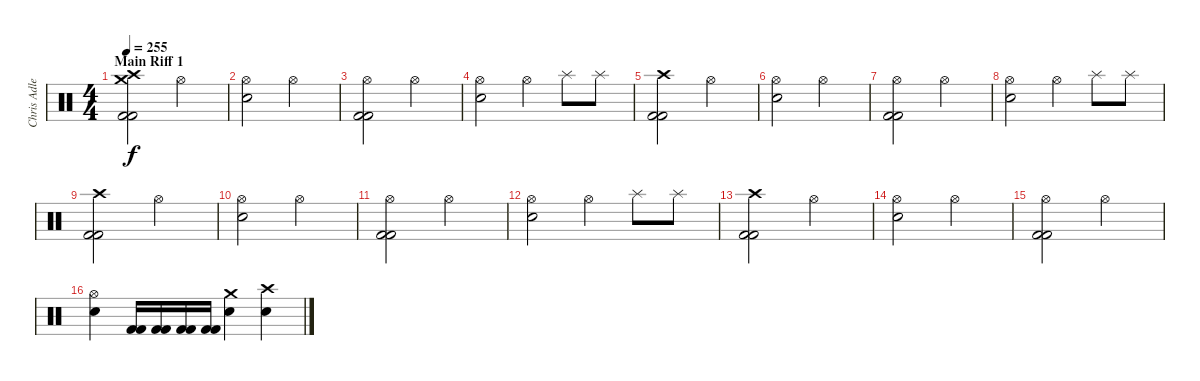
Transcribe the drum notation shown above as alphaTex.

\track ("Chris Adler" "Chris Adle") {instrument percussion}
\staff {score}
\articulation defaults
\ts (4 4)
\section ("" "Main Riff 1")
\tempo 255
\clef neutral
\ks c
("Crash medium (hit)" "Crash high (hit)" "Kick (hit) 2" "Kick (hit) 2").2{dy f} "Hi-Hat (open)".2 |
("Hi-Hat (open)" "Electric Snare (hit)").2 "Hi-Hat (open)".2 |
("Hi-Hat (open)" "Kick (hit) 2" "Kick (hit) 2").2 "Hi-Hat (open)".2 |
("Hi-Hat (open)" "Electric Snare (hit)").2 "Hi-Hat (open)".4 "Splash (hit)".8 "Splash (hit)".8 |
("Crash high (hit)" "Kick (hit) 2" "Kick (hit) 2").2 "Hi-Hat (open)".2 |
("Hi-Hat (open)" "Electric Snare (hit)").2 "Hi-Hat (open)".2 |
("Hi-Hat (open)" "Kick (hit) 2" "Kick (hit) 2").2 "Hi-Hat (open)".2 |
("Hi-Hat (open)" "Electric Snare (hit)").2 "Hi-Hat (open)".4 "Splash (hit)".8 "Splash (hit)".8 |
("Crash high (hit)" "Kick (hit) 2" "Kick (hit) 2").2 "Hi-Hat (open)".2 |
("Hi-Hat (open)" "Electric Snare (hit)").2 "Hi-Hat (open)".2 |
("Hi-Hat (open)" "Kick (hit) 2" "Kick (hit) 2").2 "Hi-Hat (open)".2 |
("Hi-Hat (open)" "Electric Snare (hit)").2 "Hi-Hat (open)".4 "Splash (hit)".8 "Splash (hit)".8 |
("Crash high (hit)" "Kick (hit) 2" "Kick (hit) 2").2 "Hi-Hat (open)".2 |
("Hi-Hat (open)" "Electric Snare (hit)").2 "Hi-Hat (open)".2 |
("Hi-Hat (open)" "Kick (hit) 2" "Kick (hit) 2").2 "Hi-Hat (open)".2 |
("Hi-Hat (open)" "Electric Snare (hit)").4 ("Kick (hit) 2" "Kick (hit) 2").16 ("Kick (hit) 2" "Kick (hit) 2").16 ("Kick (hit) 2" "Kick (hit) 2").16 ("Kick (hit) 2" "Kick (hit) 2").16 ("Crash medium (hit)" "Electric Snare (hit)").4 ("Crash high (hit)" "Electric Snare (hit)").4
